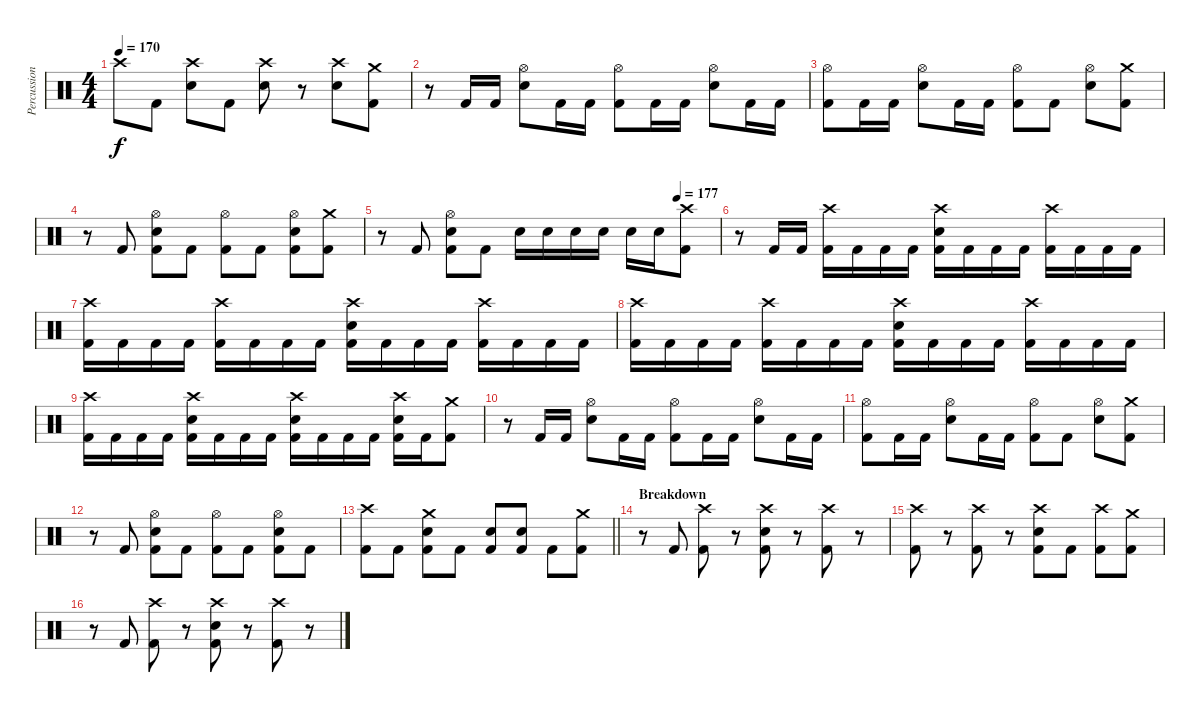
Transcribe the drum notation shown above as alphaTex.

\track ("Percussion" "Percussion") {instrument percussion}
\staff {score}
\articulation defaults
\ts (4 4)
\tempo 170
\clef neutral
\ks c "Crash high (hit)".8{dy f} "Kick (hit) 2".8
("Crash high (hit)" "Snare (hit) 2").8 "Kick (hit) 2".8 ("Crash high (hit)" "Snare (hit) 2").8 r.8 ("Crash high (hit)" "Snare (hit) 2").8 ("Crash medium (hit)" "Kick (hit) 2").8 |
r.8 "Kick (hit) 2".16 "Kick (hit) 2".16 ("Hi-Hat (open)" "Snare (hit) 2").8 "Kick (hit) 2".16 "Kick (hit) 2".16 ("Hi-Hat (open)" "Kick (hit) 2").8 "Kick (hit) 2".16 "Kick (hit) 2".16 ("Hi-Hat (open)" "Snare (hit) 2").8 "Kick (hit) 2".16 "Kick (hit) 2".16 |
("Hi-Hat (open)" "Kick (hit) 2").8 "Kick (hit) 2".16 "Kick (hit) 2".16 ("Hi-Hat (open)" "Snare (hit) 2").8 "Kick (hit) 2".16 "Kick (hit) 2".16 ("Hi-Hat (open)" "Kick (hit) 2").8 "Kick (hit) 2".8 ("Hi-Hat (open)" "Snare (hit) 2").8 ("Crash medium (hit)" "Kick (hit) 2").8 |
r.8 "Kick (hit) 2".8 ("Hi-Hat (open)" "Snare (hit) 2" "Kick (hit) 2").8 "Kick (hit) 2".8 ("Hi-Hat (open)" "Kick (hit) 2").8 "Kick (hit) 2".8 ("Hi-Hat (open)" "Snare (hit) 2" "Kick (hit) 2").8 ("Crash medium (hit)" "Kick (hit) 2").8 |
\tempo (177 0.875)
r.8 "Kick (hit) 2".8 ("Hi-Hat (open)" "Snare (hit) 2" "Kick (hit) 2").8 "Kick (hit) 2".8 "Snare (hit) 2".16 "Snare (hit) 2".16 "Snare (hit) 2".16 "Snare (hit) 2".16 "Snare (hit) 2".16 "Snare (hit) 2".16 ("Crash high (hit)" "Kick (hit) 2").8 |
r.8 "Kick (hit) 2".16 "Kick (hit) 2".16 ("Crash high (hit)" "Kick (hit) 2").16 "Kick (hit) 2".16 "Kick (hit) 2".16 "Kick (hit) 2".16 ("Crash high (hit)" "Snare (hit) 2" "Kick (hit) 2").16 "Kick (hit) 2".16 "Kick (hit) 2".16 "Kick (hit) 2".16 ("Crash high (hit)" "Kick (hit) 2").16 "Kick (hit) 2".16 "Kick (hit) 2".16 "Kick (hit) 2".16 |
("Crash high (hit)" "Kick (hit) 2").16 "Kick (hit) 2".16 "Kick (hit) 2".16 "Kick (hit) 2".16 ("Crash high (hit)" "Kick (hit) 2").16 "Kick (hit) 2".16 "Kick (hit) 2".16 "Kick (hit) 2".16 ("Crash high (hit)" "Snare (hit) 2" "Kick (hit) 2").16 "Kick (hit) 2".16 "Kick (hit) 2".16 "Kick (hit) 2".16 ("Crash high (hit)" "Kick (hit) 2").16 "Kick (hit) 2".16 "Kick (hit) 2".16 "Kick (hit) 2".16 |
("Crash high (hit)" "Kick (hit) 2").16 "Kick (hit) 2".16 "Kick (hit) 2".16 "Kick (hit) 2".16 ("Crash high (hit)" "Kick (hit) 2").16 "Kick (hit) 2".16 "Kick (hit) 2".16 "Kick (hit) 2".16 ("Crash high (hit)" "Snare (hit) 2" "Kick (hit) 2").16 "Kick (hit) 2".16 "Kick (hit) 2".16 "Kick (hit) 2".16 ("Crash high (hit)" "Kick (hit) 2").16 "Kick (hit) 2".16 "Kick (hit) 2".16 "Kick (hit) 2".16 |
("Crash high (hit)" "Kick (hit) 2").16 "Kick (hit) 2".16 "Kick (hit) 2".16 "Kick (hit) 2".16 ("Crash high (hit)" "Snare (hit) 2" "Kick (hit) 2").16 "Kick (hit) 2".16 "Kick (hit) 2".16 "Kick (hit) 2".16 ("Crash high (hit)" "Snare (hit) 2" "Kick (hit) 2").16 "Kick (hit) 2".16 "Kick (hit) 2".16 "Kick (hit) 2".16 ("Crash high (hit)" "Snare (hit) 2" "Kick (hit) 2").16 "Kick (hit) 2".16 ("Crash medium (hit)" "Kick (hit) 2").8 |
r.8 "Kick (hit) 2".16 "Kick (hit) 2".16 ("Hi-Hat (open)" "Snare (hit) 2").8 "Kick (hit) 2".16 "Kick (hit) 2".16 ("Hi-Hat (open)" "Kick (hit) 2").8 "Kick (hit) 2".16 "Kick (hit) 2".16 ("Hi-Hat (open)" "Snare (hit) 2").8 "Kick (hit) 2".16 "Kick (hit) 2".16 |
("Hi-Hat (open)" "Kick (hit) 2").8 "Kick (hit) 2".16 "Kick (hit) 2".16 ("Hi-Hat (open)" "Snare (hit) 2").8 "Kick (hit) 2".16 "Kick (hit) 2".16 ("Hi-Hat (open)" "Kick (hit) 2").8 "Kick (hit) 2".8 ("Hi-Hat (open)" "Snare (hit) 2").8 ("Crash medium (hit)" "Kick (hit) 2").8 |
r.8 "Kick (hit) 2".8 ("Hi-Hat (open)" "Snare (hit) 2" "Kick (hit) 2").8 "Kick (hit) 2".8 ("Hi-Hat (open)" "Kick (hit) 2").8 "Kick (hit) 2".8 ("Hi-Hat (open)" "Snare (hit) 2" "Kick (hit) 2").8 "Kick (hit) 2".8 |
\barLineRight lightlight
("Crash high (hit)" "Kick (hit) 2").8 "Kick (hit) 2".8 ("Crash medium (hit)" "Snare (hit) 2" "Kick (hit) 2").8 "Kick (hit) 2".8 ("Snare (hit) 2" "Kick (hit) 2").8 ("Snare (hit) 2" "Kick (hit) 2").8 "Kick (hit) 2".8 ("Crash medium (hit)" "Kick (hit) 2").8 |
\section ("" "Breakdown")
r.8 "Kick (hit) 2".8 ("Crash high (hit)" "Kick (hit) 2").8 r.8 ("Crash high (hit)" "Snare (hit) 2" "Kick (hit) 2").8 r.8 ("Crash high (hit)" "Kick (hit) 2").8 r.8 |
("Crash high (hit)" "Kick (hit) 2").8 r.8 ("Crash high (hit)" "Kick (hit) 2").8 r.8 ("Crash high (hit)" "Snare (hit) 2" "Kick (hit) 2").8 "Kick (hit) 2".8 ("Crash high (hit)" "Kick (hit) 2").8 ("Crash medium (hit)" "Kick (hit) 2").8 |
r.8 "Kick (hit) 2".8 ("Crash high (hit)" "Kick (hit) 2").8 r.8 ("Crash high (hit)" "Snare (hit) 2" "Kick (hit) 2").8 r.8 ("Crash high (hit)" "Kick (hit) 2").8 r.8
